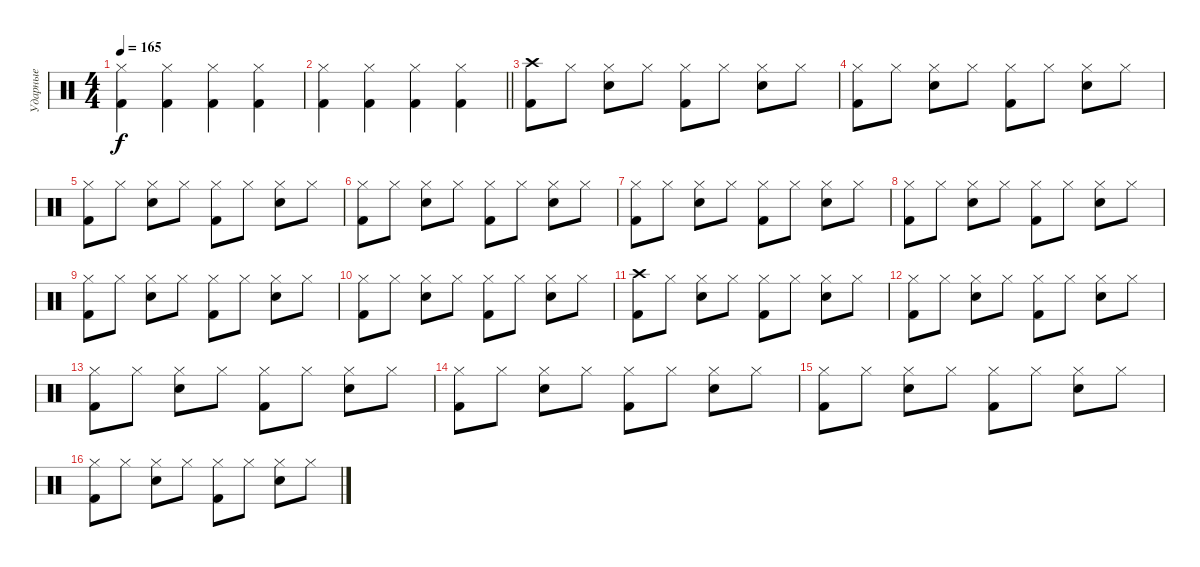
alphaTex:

\track ("Ударные" "Ударные") {instrument percussion}
\staff {score}
\articulation defaults
\ts (4 4)
\tempo 165
\clef neutral
\ks c
("Kick (hit) 2" "Hi-Hat (closed)").4{dy f} ("Hi-Hat (closed)" "Kick (hit) 2").4 ("Hi-Hat (closed)" "Kick (hit) 2").4 ("Hi-Hat (closed)" "Kick (hit) 2").4 |
\barLineRight lightlight
("Kick (hit) 2" "Hi-Hat (closed)").4 ("Hi-Hat (closed)" "Kick (hit) 2").4 ("Hi-Hat (closed)" "Kick (hit) 2").4 ("Hi-Hat (closed)" "Kick (hit) 2").4 |
("Crash high (hit)" "Kick (hit) 2").8 "Hi-Hat (closed)".8 ("Electric Snare (hit)" "Hi-Hat (closed)").8 "Hi-Hat (closed)".8 ("Hi-Hat (closed)" "Kick (hit) 2").8 "Hi-Hat (closed)".8 ("Electric Snare (hit)" "Hi-Hat (closed)").8 "Hi-Hat (closed)".8 |
("Hi-Hat (closed)" "Kick (hit) 2").8 "Hi-Hat (closed)".8 ("Hi-Hat (closed)" "Electric Snare (hit)").8 "Hi-Hat (closed)".8 ("Hi-Hat (closed)" "Kick (hit) 2").8 "Hi-Hat (closed)".8 ("Hi-Hat (closed)" "Snare (hit) 2").8 "Hi-Hat (closed)".8 |
("Hi-Hat (closed)" "Kick (hit) 2").8 "Hi-Hat (closed)".8 ("Hi-Hat (closed)" "Electric Snare (hit)").8 "Hi-Hat (closed)".8 ("Hi-Hat (closed)" "Kick (hit) 2").8 "Hi-Hat (closed)".8 ("Hi-Hat (closed)" "Snare (hit) 2").8 "Hi-Hat (closed)".8 |
("Hi-Hat (closed)" "Kick (hit) 2").8 "Hi-Hat (closed)".8 ("Hi-Hat (closed)" "Electric Snare (hit)").8 "Hi-Hat (closed)".8 ("Hi-Hat (closed)" "Kick (hit) 2").8 "Hi-Hat (closed)".8 ("Hi-Hat (closed)" "Snare (hit) 2").8 "Hi-Hat (closed)".8 |
("Hi-Hat (closed)" "Kick (hit) 2").8 "Hi-Hat (closed)".8 ("Hi-Hat (closed)" "Electric Snare (hit)").8 "Hi-Hat (closed)".8 ("Hi-Hat (closed)" "Kick (hit) 2").8 "Hi-Hat (closed)".8 ("Hi-Hat (closed)" "Snare (hit) 2").8 "Hi-Hat (closed)".8 |
("Hi-Hat (closed)" "Kick (hit) 2").8 "Hi-Hat (closed)".8 ("Hi-Hat (closed)" "Electric Snare (hit)").8 "Hi-Hat (closed)".8 ("Hi-Hat (closed)" "Kick (hit) 2").8 "Hi-Hat (closed)".8 ("Hi-Hat (closed)" "Snare (hit) 2").8 "Hi-Hat (closed)".8 |
("Hi-Hat (closed)" "Kick (hit) 2").8 "Hi-Hat (closed)".8 ("Hi-Hat (closed)" "Electric Snare (hit)").8 "Hi-Hat (closed)".8 ("Hi-Hat (closed)" "Kick (hit) 2").8 "Hi-Hat (closed)".8 ("Hi-Hat (closed)" "Snare (hit) 2").8 "Hi-Hat (closed)".8 |
("Hi-Hat (closed)" "Kick (hit) 2").8 "Hi-Hat (closed)".8 ("Hi-Hat (closed)" "Electric Snare (hit)").8 "Hi-Hat (closed)".8 ("Hi-Hat (closed)" "Kick (hit) 2").8 "Hi-Hat (closed)".8 ("Hi-Hat (closed)" "Snare (hit) 2").8 "Hi-Hat (closed)".8 |
("Crash high (hit)" "Kick (hit) 2").8 "Hi-Hat (closed)".8 ("Electric Snare (hit)" "Hi-Hat (closed)").8 "Hi-Hat (closed)".8 ("Hi-Hat (closed)" "Kick (hit) 2").8 "Hi-Hat (closed)".8 ("Electric Snare (hit)" "Hi-Hat (closed)").8 "Hi-Hat (closed)".8 |
("Hi-Hat (closed)" "Kick (hit) 2").8 "Hi-Hat (closed)".8 ("Hi-Hat (closed)" "Electric Snare (hit)").8 "Hi-Hat (closed)".8 ("Hi-Hat (closed)" "Kick (hit) 2").8 "Hi-Hat (closed)".8 ("Hi-Hat (closed)" "Snare (hit) 2").8 "Hi-Hat (closed)".8 |
("Hi-Hat (closed)" "Kick (hit) 2").8 "Hi-Hat (closed)".8 ("Hi-Hat (closed)" "Electric Snare (hit)").8 "Hi-Hat (closed)".8 ("Hi-Hat (closed)" "Kick (hit) 2").8 "Hi-Hat (closed)".8 ("Hi-Hat (closed)" "Snare (hit) 2").8 "Hi-Hat (closed)".8 |
("Hi-Hat (closed)" "Kick (hit) 2").8 "Hi-Hat (closed)".8 ("Hi-Hat (closed)" "Electric Snare (hit)").8 "Hi-Hat (closed)".8 ("Hi-Hat (closed)" "Kick (hit) 2").8 "Hi-Hat (closed)".8 ("Hi-Hat (closed)" "Snare (hit) 2").8 "Hi-Hat (closed)".8 |
("Hi-Hat (closed)" "Kick (hit) 2").8 "Hi-Hat (closed)".8 ("Hi-Hat (closed)" "Electric Snare (hit)").8 "Hi-Hat (closed)".8 ("Hi-Hat (closed)" "Kick (hit) 2").8 "Hi-Hat (closed)".8 ("Hi-Hat (closed)" "Snare (hit) 2").8 "Hi-Hat (closed)".8 |
("Hi-Hat (closed)" "Kick (hit) 2").8 "Hi-Hat (closed)".8 ("Hi-Hat (closed)" "Electric Snare (hit)").8 "Hi-Hat (closed)".8 ("Hi-Hat (closed)" "Kick (hit) 2").8 "Hi-Hat (closed)".8 ("Hi-Hat (closed)" "Snare (hit) 2").8 "Hi-Hat (closed)".8
